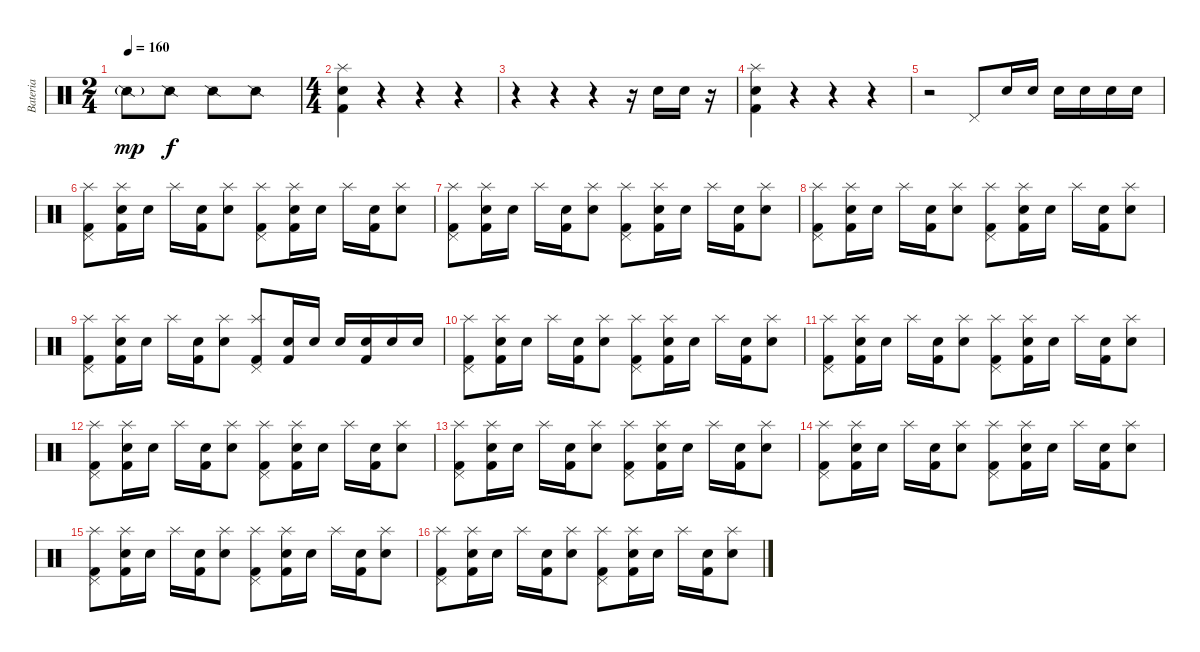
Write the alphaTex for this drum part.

\track ("Bateria" "Bateria") {instrument percussion}
\staff {score}
\articulation defaults
\ts (2 4)
\tempo 160
\clef neutral
\ks c "Snare (side stick) 2"{g}.8{dy mp} "Snare (side stick) 2".8{dy f} "Snare (side stick) 2".8 "Snare (side stick) 2".8
|
\ts (4 4)
("Kick (hit) 2" "Snare (hit) 2" "Splash (hit)").4 r.4 r.4 r.4 |
r.4 r.4 r.4 r.16 "Snare (hit) 2".16 "Snare (hit) 2".16 r.16 |
("Kick (hit) 2" "Snare (hit) 2" "Splash (hit)").4 r.4 r.4 r.4 |
r.2 "Pedal Hi-Hat (hit)".8 "Snare (hit) 2".16 "Snare (hit) 2".16 "Snare (hit) 2".16 "Snare (hit) 2".16 "Snare (hit) 2".16 "Snare (hit) 2".16 |
("Splash (hit)" "Pedal Hi-Hat (hit)" "Kick (hit) 2").8 ("Splash (hit)" "Snare (hit) 2" "Kick (hit) 2").16 "Snare (hit) 2".16 "Splash (hit)".16 ("Snare (hit) 2" "Kick (hit) 2").16 ("Splash (hit)" "Snare (hit) 2").8 ("Splash (hit)" "Pedal Hi-Hat (hit)" "Kick (hit) 2").8 ("Splash (hit)" "Snare (hit) 2" "Kick (hit) 2").16 "Snare (hit) 2".16 "Splash (hit)".16 ("Snare (hit) 2" "Kick (hit) 2").16 ("Splash (hit)" "Snare (hit) 2").8 |
("Splash (hit)" "Pedal Hi-Hat (hit)" "Kick (hit) 2").8 ("Splash (hit)" "Snare (hit) 2" "Kick (hit) 2").16 "Snare (hit) 2".16 "Splash (hit)".16 ("Snare (hit) 2" "Kick (hit) 2").16 ("Splash (hit)" "Snare (hit) 2").8 ("Splash (hit)" "Pedal Hi-Hat (hit)" "Kick (hit) 2").8 ("Splash (hit)" "Snare (hit) 2" "Kick (hit) 2").16 "Snare (hit) 2".16 "Splash (hit)".16 ("Snare (hit) 2" "Kick (hit) 2").16 ("Splash (hit)" "Snare (hit) 2").8 |
("Splash (hit)" "Pedal Hi-Hat (hit)" "Kick (hit) 2").8 ("Splash (hit)" "Snare (hit) 2" "Kick (hit) 2").16 "Snare (hit) 2".16 "Splash (hit)".16 ("Snare (hit) 2" "Kick (hit) 2").16 ("Splash (hit)" "Snare (hit) 2").8 ("Splash (hit)" "Pedal Hi-Hat (hit)" "Kick (hit) 2").8 ("Splash (hit)" "Snare (hit) 2" "Kick (hit) 2").16 "Snare (hit) 2".16 "Splash (hit)".16 ("Snare (hit) 2" "Kick (hit) 2").16 ("Splash (hit)" "Snare (hit) 2").8 |
("Splash (hit)" "Pedal Hi-Hat (hit)" "Kick (hit) 2").8 ("Splash (hit)" "Snare (hit) 2" "Kick (hit) 2").16 "Snare (hit) 2".16 "Splash (hit)".16 ("Snare (hit) 2" "Kick (hit) 2").16 ("Splash (hit)" "Snare (hit) 2").8 ("Splash (hit)" "Pedal Hi-Hat (hit)" "Kick (hit) 2").8 ("Snare (hit) 2" "Kick (hit) 2").16 "Snare (hit) 2".16 "Snare (hit) 2".16 ("Snare (hit) 2" "Kick (hit) 2").16 "Snare (hit) 2".16 "Snare (hit) 2".16 |
("Splash (hit)" "Pedal Hi-Hat (hit)" "Kick (hit) 2").8 ("Splash (hit)" "Snare (hit) 2" "Kick (hit) 2").16 "Snare (hit) 2".16 "Splash (hit)".16 ("Snare (hit) 2" "Kick (hit) 2").16 ("Splash (hit)" "Snare (hit) 2").8 ("Splash (hit)" "Pedal Hi-Hat (hit)" "Kick (hit) 2").8 ("Splash (hit)" "Snare (hit) 2" "Kick (hit) 2").16 "Snare (hit) 2".16 "Splash (hit)".16 ("Snare (hit) 2" "Kick (hit) 2").16 ("Splash (hit)" "Snare (hit) 2").8 |
("Splash (hit)" "Pedal Hi-Hat (hit)" "Kick (hit) 2").8 ("Splash (hit)" "Snare (hit) 2" "Kick (hit) 2").16 "Snare (hit) 2".16 "Splash (hit)".16 ("Snare (hit) 2" "Kick (hit) 2").16 ("Splash (hit)" "Snare (hit) 2").8 ("Splash (hit)" "Pedal Hi-Hat (hit)" "Kick (hit) 2").8 ("Splash (hit)" "Snare (hit) 2" "Kick (hit) 2").16 "Snare (hit) 2".16 "Splash (hit)".16 ("Snare (hit) 2" "Kick (hit) 2").16 ("Splash (hit)" "Snare (hit) 2").8 |
("Splash (hit)" "Pedal Hi-Hat (hit)" "Kick (hit) 2").8 ("Splash (hit)" "Snare (hit) 2" "Kick (hit) 2").16 "Snare (hit) 2".16 "Splash (hit)".16 ("Snare (hit) 2" "Kick (hit) 2").16 ("Splash (hit)" "Snare (hit) 2").8 ("Splash (hit)" "Pedal Hi-Hat (hit)" "Kick (hit) 2").8 ("Splash (hit)" "Snare (hit) 2" "Kick (hit) 2").16 "Snare (hit) 2".16 "Splash (hit)".16 ("Snare (hit) 2" "Kick (hit) 2").16 ("Splash (hit)" "Snare (hit) 2").8 |
("Splash (hit)" "Pedal Hi-Hat (hit)" "Kick (hit) 2").8 ("Splash (hit)" "Snare (hit) 2" "Kick (hit) 2").16 "Snare (hit) 2".16 "Splash (hit)".16 ("Snare (hit) 2" "Kick (hit) 2").16 ("Splash (hit)" "Snare (hit) 2").8 ("Splash (hit)" "Pedal Hi-Hat (hit)" "Kick (hit) 2").8 ("Splash (hit)" "Snare (hit) 2" "Kick (hit) 2").16 "Snare (hit) 2".16 "Splash (hit)".16 ("Snare (hit) 2" "Kick (hit) 2").16 ("Splash (hit)" "Snare (hit) 2").8 |
("Splash (hit)" "Pedal Hi-Hat (hit)" "Kick (hit) 2").8 ("Splash (hit)" "Snare (hit) 2" "Kick (hit) 2").16 "Snare (hit) 2".16 "Splash (hit)".16 ("Snare (hit) 2" "Kick (hit) 2").16 ("Splash (hit)" "Snare (hit) 2").8 ("Splash (hit)" "Pedal Hi-Hat (hit)" "Kick (hit) 2").8 ("Splash (hit)" "Snare (hit) 2" "Kick (hit) 2").16 "Snare (hit) 2".16 "Splash (hit)".16 ("Snare (hit) 2" "Kick (hit) 2").16 ("Splash (hit)" "Snare (hit) 2").8 |
("Splash (hit)" "Pedal Hi-Hat (hit)" "Kick (hit) 2").8 ("Splash (hit)" "Snare (hit) 2" "Kick (hit) 2").16 "Snare (hit) 2".16 "Splash (hit)".16 ("Snare (hit) 2" "Kick (hit) 2").16 ("Splash (hit)" "Snare (hit) 2").8 ("Splash (hit)" "Pedal Hi-Hat (hit)" "Kick (hit) 2").8 ("Splash (hit)" "Snare (hit) 2" "Kick (hit) 2").16 "Snare (hit) 2".16 "Splash (hit)".16 ("Snare (hit) 2" "Kick (hit) 2").16 ("Splash (hit)" "Snare (hit) 2").8 |
("Splash (hit)" "Pedal Hi-Hat (hit)" "Kick (hit) 2").8 ("Splash (hit)" "Snare (hit) 2" "Kick (hit) 2").16 "Snare (hit) 2".16 "Splash (hit)".16 ("Snare (hit) 2" "Kick (hit) 2").16 ("Splash (hit)" "Snare (hit) 2").8 ("Splash (hit)" "Pedal Hi-Hat (hit)" "Kick (hit) 2").8 ("Splash (hit)" "Snare (hit) 2" "Kick (hit) 2").16 "Snare (hit) 2".16 "Splash (hit)".16 ("Snare (hit) 2" "Kick (hit) 2").16 ("Splash (hit)" "Snare (hit) 2").8
